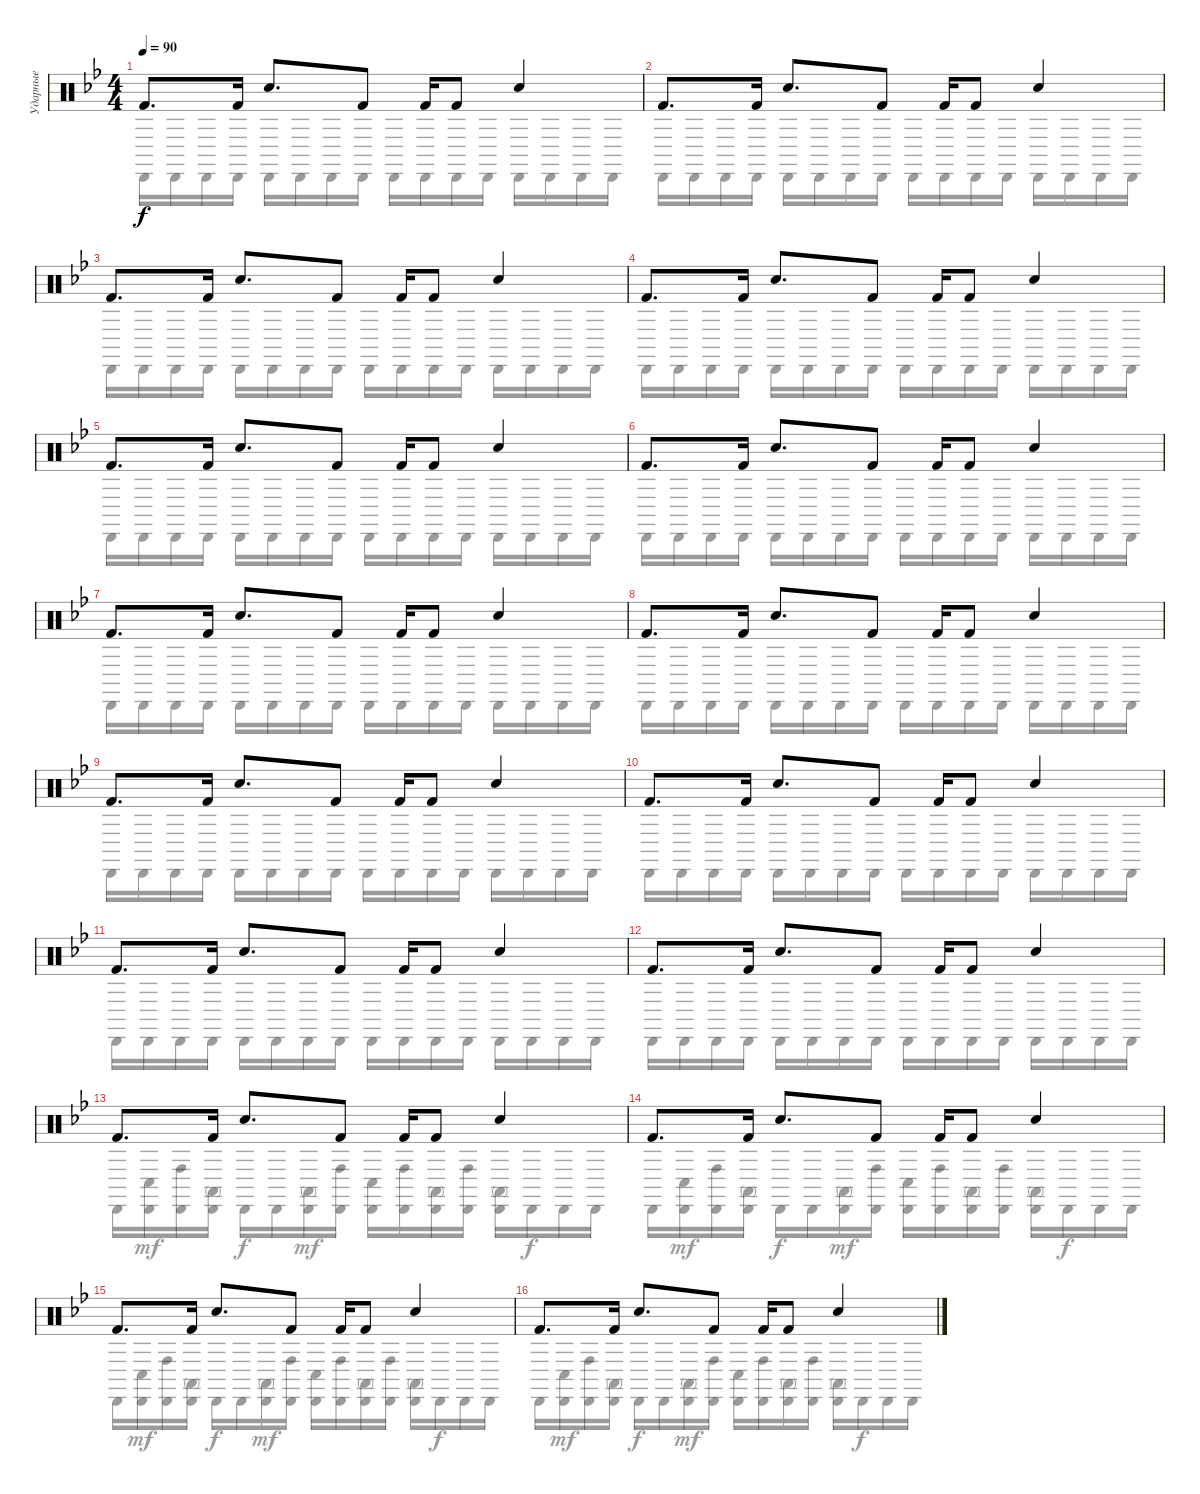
\track ("Ударные" "Ударные") {instrument percussion}
\staff {score}
\articulation defaults
\voice
\ts (4 4)
\tempo 90
\clef neutral
\ks bb "Kick (hit) 2".8{d dy f} "Kick (hit) 2".16 "Hand Clap (hit)".8{d} "Kick (hit) 2".8 "Kick (hit) 2".16 "Kick (hit) 2".8 "Hand Clap (hit)".4
|
"Kick (hit) 2".8{d} "Kick (hit) 2".16 "Hand Clap (hit)".8{d} "Kick (hit) 2".8 "Kick (hit) 2".16 "Kick (hit) 2".8 "Hand Clap (hit)".4 |
"Kick (hit) 2".8{d} "Kick (hit) 2".16 "Hand Clap (hit)".8{d} "Kick (hit) 2".8 "Kick (hit) 2".16 "Kick (hit) 2".8 "Hand Clap (hit)".4 |
"Kick (hit) 2".8{d} "Kick (hit) 2".16 "Hand Clap (hit)".8{d} "Kick (hit) 2".8 "Kick (hit) 2".16 "Kick (hit) 2".8 "Hand Clap (hit)".4 |
"Kick (hit) 2".8{d} "Kick (hit) 2".16 "Hand Clap (hit)".8{d} "Kick (hit) 2".8 "Kick (hit) 2".16 "Kick (hit) 2".8 "Hand Clap (hit)".4 |
"Kick (hit) 2".8{d} "Kick (hit) 2".16 "Hand Clap (hit)".8{d} "Kick (hit) 2".8 "Kick (hit) 2".16 "Kick (hit) 2".8 "Hand Clap (hit)".4 |
"Kick (hit) 2".8{d} "Kick (hit) 2".16 "Hand Clap (hit)".8{d} "Kick (hit) 2".8 "Kick (hit) 2".16 "Kick (hit) 2".8 "Hand Clap (hit)".4 |
"Kick (hit) 2".8{d} "Kick (hit) 2".16 "Hand Clap (hit)".8{d} "Kick (hit) 2".8 "Kick (hit) 2".16 "Kick (hit) 2".8 "Hand Clap (hit)".4 |
"Kick (hit) 2".8{d} "Kick (hit) 2".16 "Hand Clap (hit)".8{d} "Kick (hit) 2".8 "Kick (hit) 2".16 "Kick (hit) 2".8 "Hand Clap (hit)".4 |
"Kick (hit) 2".8{d} "Kick (hit) 2".16 "Hand Clap (hit)".8{d} "Kick (hit) 2".8 "Kick (hit) 2".16 "Kick (hit) 2".8 "Hand Clap (hit)".4 |
"Kick (hit) 2".8{d} "Kick (hit) 2".16 "Hand Clap (hit)".8{d} "Kick (hit) 2".8 "Kick (hit) 2".16 "Kick (hit) 2".8 "Hand Clap (hit)".4 |
"Kick (hit) 2".8{d} "Kick (hit) 2".16 "Hand Clap (hit)".8{d} "Kick (hit) 2".8 "Kick (hit) 2".16 "Kick (hit) 2".8 "Hand Clap (hit)".4 |
"Kick (hit) 2".8{d} "Kick (hit) 2".16 "Hand Clap (hit)".8{d} "Kick (hit) 2".8 "Kick (hit) 2".16 "Kick (hit) 2".8 "Hand Clap (hit)".4 |
"Kick (hit) 2".8{d} "Kick (hit) 2".16 "Hand Clap (hit)".8{d} "Kick (hit) 2".8 "Kick (hit) 2".16 "Kick (hit) 2".8 "Hand Clap (hit)".4 |
"Kick (hit) 2".8{d} "Kick (hit) 2".16 "Hand Clap (hit)".8{d} "Kick (hit) 2".8 "Kick (hit) 2".16 "Kick (hit) 2".8 "Hand Clap (hit)".4 |
"Kick (hit) 2".8{d} "Kick (hit) 2".16 "Hand Clap (hit)".8{d} "Kick (hit) 2".8 "Kick (hit) 2".16 "Kick (hit) 2".8 "Hand Clap (hit)".4
\voice
\clef neutral
\ottava regular
\simile none
\ks bb "Cabasa (hit)".16{dy f} "Cabasa (hit)".16 "Cabasa (hit)".16 "Cabasa (hit)".16 "Cabasa (hit)".16 "Cabasa (hit)".16 "Cabasa (hit)".16 "Cabasa (hit)".16 "Cabasa (hit)".16 "Cabasa (hit)".16 "Cabasa (hit)".16 "Cabasa (hit)".16 "Cabasa (hit)".16 "Cabasa (hit)".16 "Cabasa (hit)".16 "Cabasa (hit)".16
|
"Cabasa (hit)".16 "Cabasa (hit)".16 "Cabasa (hit)".16 "Cabasa (hit)".16 "Cabasa (hit)".16 "Cabasa (hit)".16 "Cabasa (hit)".16 "Cabasa (hit)".16 "Cabasa (hit)".16 "Cabasa (hit)".16 "Cabasa (hit)".16 "Cabasa (hit)".16 "Cabasa (hit)".16 "Cabasa (hit)".16 "Cabasa (hit)".16 "Cabasa (hit)".16 |
"Cabasa (hit)".16 "Cabasa (hit)".16 "Cabasa (hit)".16 "Cabasa (hit)".16 "Cabasa (hit)".16 "Cabasa (hit)".16 "Cabasa (hit)".16 "Cabasa (hit)".16 "Cabasa (hit)".16 "Cabasa (hit)".16 "Cabasa (hit)".16 "Cabasa (hit)".16 "Cabasa (hit)".16 "Cabasa (hit)".16 "Cabasa (hit)".16 "Cabasa (hit)".16 |
"Cabasa (hit)".16 "Cabasa (hit)".16 "Cabasa (hit)".16 "Cabasa (hit)".16 "Cabasa (hit)".16 "Cabasa (hit)".16 "Cabasa (hit)".16 "Cabasa (hit)".16 "Cabasa (hit)".16 "Cabasa (hit)".16 "Cabasa (hit)".16 "Cabasa (hit)".16 "Cabasa (hit)".16 "Cabasa (hit)".16 "Cabasa (hit)".16 "Cabasa (hit)".16 |
"Cabasa (hit)".16 "Cabasa (hit)".16 "Cabasa (hit)".16 "Cabasa (hit)".16 "Cabasa (hit)".16 "Cabasa (hit)".16 "Cabasa (hit)".16 "Cabasa (hit)".16 "Cabasa (hit)".16 "Cabasa (hit)".16 "Cabasa (hit)".16 "Cabasa (hit)".16 "Cabasa (hit)".16 "Cabasa (hit)".16 "Cabasa (hit)".16 "Cabasa (hit)".16 |
"Cabasa (hit)".16 "Cabasa (hit)".16 "Cabasa (hit)".16 "Cabasa (hit)".16 "Cabasa (hit)".16 "Cabasa (hit)".16 "Cabasa (hit)".16 "Cabasa (hit)".16 "Cabasa (hit)".16 "Cabasa (hit)".16 "Cabasa (hit)".16 "Cabasa (hit)".16 "Cabasa (hit)".16 "Cabasa (hit)".16 "Cabasa (hit)".16 "Cabasa (hit)".16 |
"Cabasa (hit)".16 "Cabasa (hit)".16 "Cabasa (hit)".16 "Cabasa (hit)".16 "Cabasa (hit)".16 "Cabasa (hit)".16 "Cabasa (hit)".16 "Cabasa (hit)".16 "Cabasa (hit)".16 "Cabasa (hit)".16 "Cabasa (hit)".16 "Cabasa (hit)".16 "Cabasa (hit)".16 "Cabasa (hit)".16 "Cabasa (hit)".16 "Cabasa (hit)".16 |
"Cabasa (hit)".16 "Cabasa (hit)".16 "Cabasa (hit)".16 "Cabasa (hit)".16 "Cabasa (hit)".16 "Cabasa (hit)".16 "Cabasa (hit)".16 "Cabasa (hit)".16 "Cabasa (hit)".16 "Cabasa (hit)".16 "Cabasa (hit)".16 "Cabasa (hit)".16 "Cabasa (hit)".16 "Cabasa (hit)".16 "Cabasa (hit)".16 "Cabasa (hit)".16 |
"Cabasa (hit)".16 "Cabasa (hit)".16 "Cabasa (hit)".16 "Cabasa (hit)".16 "Cabasa (hit)".16 "Cabasa (hit)".16 "Cabasa (hit)".16 "Cabasa (hit)".16 "Cabasa (hit)".16 "Cabasa (hit)".16 "Cabasa (hit)".16 "Cabasa (hit)".16 "Cabasa (hit)".16 "Cabasa (hit)".16 "Cabasa (hit)".16 "Cabasa (hit)".16 |
"Cabasa (hit)".16 "Cabasa (hit)".16 "Cabasa (hit)".16 "Cabasa (hit)".16 "Cabasa (hit)".16 "Cabasa (hit)".16 "Cabasa (hit)".16 "Cabasa (hit)".16 "Cabasa (hit)".16 "Cabasa (hit)".16 "Cabasa (hit)".16 "Cabasa (hit)".16 "Cabasa (hit)".16 "Cabasa (hit)".16 "Cabasa (hit)".16 "Cabasa (hit)".16 |
"Cabasa (hit)".16 "Cabasa (hit)".16 "Cabasa (hit)".16 "Cabasa (hit)".16 "Cabasa (hit)".16 "Cabasa (hit)".16 "Cabasa (hit)".16 "Cabasa (hit)".16 "Cabasa (hit)".16 "Cabasa (hit)".16 "Cabasa (hit)".16 "Cabasa (hit)".16 "Cabasa (hit)".16 "Cabasa (hit)".16 "Cabasa (hit)".16 "Cabasa (hit)".16 |
"Cabasa (hit)".16 "Cabasa (hit)".16 "Cabasa (hit)".16 "Cabasa (hit)".16 "Cabasa (hit)".16 "Cabasa (hit)".16 "Cabasa (hit)".16 "Cabasa (hit)".16 "Cabasa (hit)".16 "Cabasa (hit)".16 "Cabasa (hit)".16 "Cabasa (hit)".16 "Cabasa (hit)".16 "Cabasa (hit)".16 "Cabasa (hit)".16 "Cabasa (hit)".16 |
"Cabasa (hit)".16 ("Cabasa (hit)" "Conga low (hit)").16{dy mf} ("Cabasa (hit)" "Conga high (hit)").16 ("Cabasa (hit)" "Conga high (mute)").16 "Cabasa (hit)".16{dy f} "Cabasa (hit)".16 ("Cabasa (hit)" "Conga high (mute)").16{dy mf} ("Cabasa (hit)" "Conga high (hit)").16 ("Cabasa (hit)" "Conga low (hit)").16 ("Cabasa (hit)" "Conga high (hit)").16 ("Cabasa (hit)" "Conga high (mute)").16 ("Cabasa (hit)" "Conga high (hit)").16 ("Cabasa (hit)" "Conga high (mute)").16 "Cabasa (hit)".16{dy f} "Cabasa (hit)".16 "Cabasa (hit)".16 |
"Cabasa (hit)".16 ("Cabasa (hit)" "Conga low (hit)").16{dy mf} ("Cabasa (hit)" "Conga high (hit)").16 ("Cabasa (hit)" "Conga high (mute)").16 "Cabasa (hit)".16{dy f} "Cabasa (hit)".16 ("Cabasa (hit)" "Conga high (mute)").16{dy mf} ("Cabasa (hit)" "Conga high (hit)").16 ("Cabasa (hit)" "Conga low (hit)").16 ("Cabasa (hit)" "Conga high (hit)").16 ("Cabasa (hit)" "Conga high (mute)").16 ("Cabasa (hit)" "Conga high (hit)").16 ("Cabasa (hit)" "Conga high (mute)").16 "Cabasa (hit)".16{dy f} "Cabasa (hit)".16 "Cabasa (hit)".16 |
"Cabasa (hit)".16 ("Cabasa (hit)" "Conga low (hit)").16{dy mf} ("Cabasa (hit)" "Conga high (hit)").16 ("Cabasa (hit)" "Conga high (mute)").16 "Cabasa (hit)".16{dy f} "Cabasa (hit)".16 ("Cabasa (hit)" "Conga high (mute)").16{dy mf} ("Cabasa (hit)" "Conga high (hit)").16 ("Cabasa (hit)" "Conga low (hit)").16 ("Cabasa (hit)" "Conga high (hit)").16 ("Cabasa (hit)" "Conga high (mute)").16 ("Cabasa (hit)" "Conga high (hit)").16 ("Cabasa (hit)" "Conga high (mute)").16 "Cabasa (hit)".16{dy f} "Cabasa (hit)".16 "Cabasa (hit)".16 |
"Cabasa (hit)".16 ("Cabasa (hit)" "Conga low (hit)").16{dy mf} ("Cabasa (hit)" "Conga high (hit)").16 ("Cabasa (hit)" "Conga high (mute)").16 "Cabasa (hit)".16{dy f} "Cabasa (hit)".16 ("Cabasa (hit)" "Conga high (mute)").16{dy mf} ("Cabasa (hit)" "Conga high (hit)").16 ("Cabasa (hit)" "Conga low (hit)").16 ("Cabasa (hit)" "Conga high (hit)").16 ("Cabasa (hit)" "Conga high (mute)").16 ("Cabasa (hit)" "Conga high (hit)").16 ("Cabasa (hit)" "Conga high (mute)").16 "Cabasa (hit)".16{dy f} "Cabasa (hit)".16 "Cabasa (hit)".16
